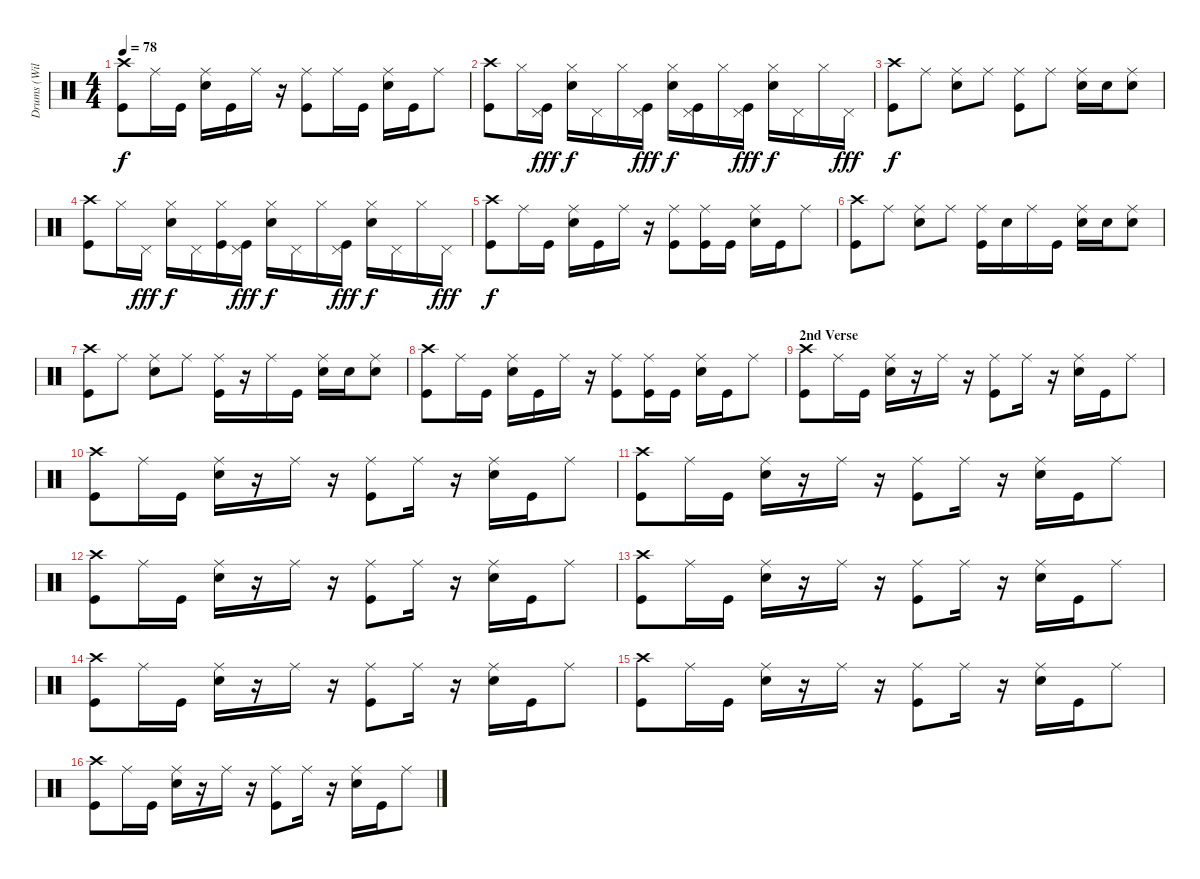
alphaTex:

\track ("Drums (William Ward)" "Drums (Wil") {instrument percussion}
\staff {score}
\articulation defaults
\ts (4 4)
\tempo 78
\clef neutral
\ks c
("Crash high (hit)" "Kick (hit)").8{dy f} "Ride (middle)".16 "Kick (hit)".16 ("Ride (middle)" "Electric Snare (hit)").16 "Kick (hit)".16 "Ride (middle)".16 r.16 ("Ride (middle)" "Kick (hit)").8 "Ride (middle)".16 "Kick (hit)".16 ("Ride (middle)" "Electric Snare (hit)").16 "Kick (hit)".16 "Ride (middle)".8 |
("Crash high (hit)" "Kick (hit)").8 "Hi-Hat (closed)".16 ("Pedal Hi-Hat (hit)" "Kick (hit)").16{dy fff} ("Hi-Hat (closed)" "Electric Snare (hit)").16{dy f} "Pedal Hi-Hat (hit)".16 "Hi-Hat (closed)".16 ("Pedal Hi-Hat (hit)" "Kick (hit)").16{dy fff} ("Hi-Hat (closed)" "Electric Snare (hit)").16{dy f} ("Pedal Hi-Hat (hit)" "Kick (hit)").16 "Hi-Hat (closed)".16 ("Pedal Hi-Hat (hit)" "Kick (hit)").16{dy fff} ("Hi-Hat (closed)" "Electric Snare (hit)").16{dy f} "Pedal Hi-Hat (hit)".16 "Hi-Hat (closed)".16 "Pedal Hi-Hat (hit)".16{dy fff} |
("Crash high (hit)" "Kick (hit)").8{dy f} "Ride (middle)".8 ("Ride (middle)" "Electric Snare (hit)").8 "Ride (middle)".8 ("Ride (middle)" "Kick (hit)").8 "Ride (middle)".8 ("Ride (middle)" "Electric Snare (hit)").16 "Electric Snare (hit)".16 ("Ride (middle)" "Electric Snare (hit)").8 |
("Crash high (hit)" "Kick (hit)").8 "Hi-Hat (closed)".16 "Pedal Hi-Hat (hit)".16{dy fff} ("Hi-Hat (closed)" "Electric Snare (hit)").16{dy f} "Pedal Hi-Hat (hit)".16 ("Hi-Hat (closed)" "Kick (hit)").16 ("Pedal Hi-Hat (hit)" "Kick (hit)").16{dy fff} ("Hi-Hat (closed)" "Electric Snare (hit)").16{dy f} "Pedal Hi-Hat (hit)".16 "Hi-Hat (closed)".16 ("Pedal Hi-Hat (hit)" "Kick (hit)").16{dy fff} ("Hi-Hat (closed)" "Electric Snare (hit)").16{dy f} "Pedal Hi-Hat (hit)".16 "Hi-Hat (closed)".16 "Pedal Hi-Hat (hit)".16{dy fff} |
("Crash high (hit)" "Kick (hit)").8{dy f} "Ride (middle)".16 "Kick (hit)".16 ("Ride (middle)" "Electric Snare (hit)").16 "Kick (hit)".16 "Ride (middle)".16 r.16 ("Ride (middle)" "Kick (hit)").8 ("Ride (middle)" "Kick (hit)").16 "Kick (hit)".16 ("Ride (middle)" "Electric Snare (hit)").16 "Kick (hit)".16 "Ride (middle)".8 |
("Crash high (hit)" "Kick (hit)").8 "Ride (middle)".8 ("Ride (middle)" "Electric Snare (hit)").8 "Ride (middle)".8 ("Ride (middle)" "Kick (hit)").16 "Electric Snare (hit)".16 "Ride (middle)".16 "Kick (hit)".16 ("Ride (middle)" "Electric Snare (hit)").16 "Electric Snare (hit)".16 ("Ride (middle)" "Electric Snare (hit)").8 |
("Crash high (hit)" "Kick (hit)").8 "Ride (middle)".8 ("Ride (middle)" "Electric Snare (hit)").8 "Ride (middle)".8 ("Ride (middle)" "Kick (hit)").16 r.16 "Ride (middle)".16 "Kick (hit)".16 ("Ride (middle)" "Electric Snare (hit)").16 "Electric Snare (hit)".16 ("Ride (middle)" "Electric Snare (hit)").8 |
("Crash high (hit)" "Kick (hit)").8 "Ride (middle)".16 "Kick (hit)".16 ("Ride (middle)" "Electric Snare (hit)").16 "Kick (hit)".16 "Ride (middle)".16 r.16 ("Ride (middle)" "Kick (hit)").8 ("Ride (middle)" "Kick (hit)").16 "Kick (hit)".16 ("Ride (middle)" "Electric Snare (hit)").16 "Kick (hit)".16 "Ride (middle)".8 |
\section ("" "2nd Verse")
("Crash high (hit)" "Kick (hit)").8 "Ride (middle)".16 "Kick (hit)".16 ("Ride (middle)" "Electric Snare (hit)").16 r.16 "Ride (middle)".16 r.16 ("Ride (middle)" "Kick (hit)").8 "Ride (middle)".16 r.16 ("Ride (middle)" "Electric Snare (hit)").16 "Kick (hit)".16 "Ride (middle)".8 |
("Crash high (hit)" "Kick (hit)").8 "Ride (middle)".16 "Kick (hit)".16 ("Ride (middle)" "Electric Snare (hit)").16 r.16 "Ride (middle)".16 r.16 ("Ride (middle)" "Kick (hit)").8 "Ride (middle)".16 r.16 ("Ride (middle)" "Electric Snare (hit)").16 "Kick (hit)".16 "Ride (middle)".8 |
("Crash high (hit)" "Kick (hit)").8 "Ride (middle)".16 "Kick (hit)".16 ("Ride (middle)" "Electric Snare (hit)").16 r.16 "Ride (middle)".16 r.16 ("Ride (middle)" "Kick (hit)").8 "Ride (middle)".16 r.16 ("Ride (middle)" "Electric Snare (hit)").16 "Kick (hit)".16 "Ride (middle)".8 |
("Crash high (hit)" "Kick (hit)").8 "Ride (middle)".16 "Kick (hit)".16 ("Ride (middle)" "Electric Snare (hit)").16 r.16 "Ride (middle)".16 r.16 ("Ride (middle)" "Kick (hit)").8 "Ride (middle)".16 r.16 ("Ride (middle)" "Electric Snare (hit)").16 "Kick (hit)".16 "Ride (middle)".8 |
("Crash high (hit)" "Kick (hit)").8 "Ride (middle)".16 "Kick (hit)".16 ("Ride (middle)" "Electric Snare (hit)").16 r.16 "Ride (middle)".16 r.16 ("Ride (middle)" "Kick (hit)").8 "Ride (middle)".16 r.16 ("Ride (middle)" "Electric Snare (hit)").16 "Kick (hit)".16 "Ride (middle)".8 |
("Crash high (hit)" "Kick (hit)").8 "Ride (middle)".16 "Kick (hit)".16 ("Ride (middle)" "Electric Snare (hit)").16 r.16 "Ride (middle)".16 r.16 ("Ride (middle)" "Kick (hit)").8 "Ride (middle)".16 r.16 ("Ride (middle)" "Electric Snare (hit)").16 "Kick (hit)".16 "Ride (middle)".8 |
("Crash high (hit)" "Kick (hit)").8 "Ride (middle)".16 "Kick (hit)".16 ("Ride (middle)" "Electric Snare (hit)").16 r.16 "Ride (middle)".16 r.16 ("Ride (middle)" "Kick (hit)").8 "Ride (middle)".16 r.16 ("Ride (middle)" "Electric Snare (hit)").16 "Kick (hit)".16 "Ride (middle)".8 |
("Crash high (hit)" "Kick (hit)").8 "Ride (middle)".16 "Kick (hit)".16 ("Ride (middle)" "Electric Snare (hit)").16 r.16 "Ride (middle)".16 r.16 ("Ride (middle)" "Kick (hit)").8 "Ride (middle)".16 r.16 ("Ride (middle)" "Electric Snare (hit)").16 "Kick (hit)".16 "Ride (middle)".8
